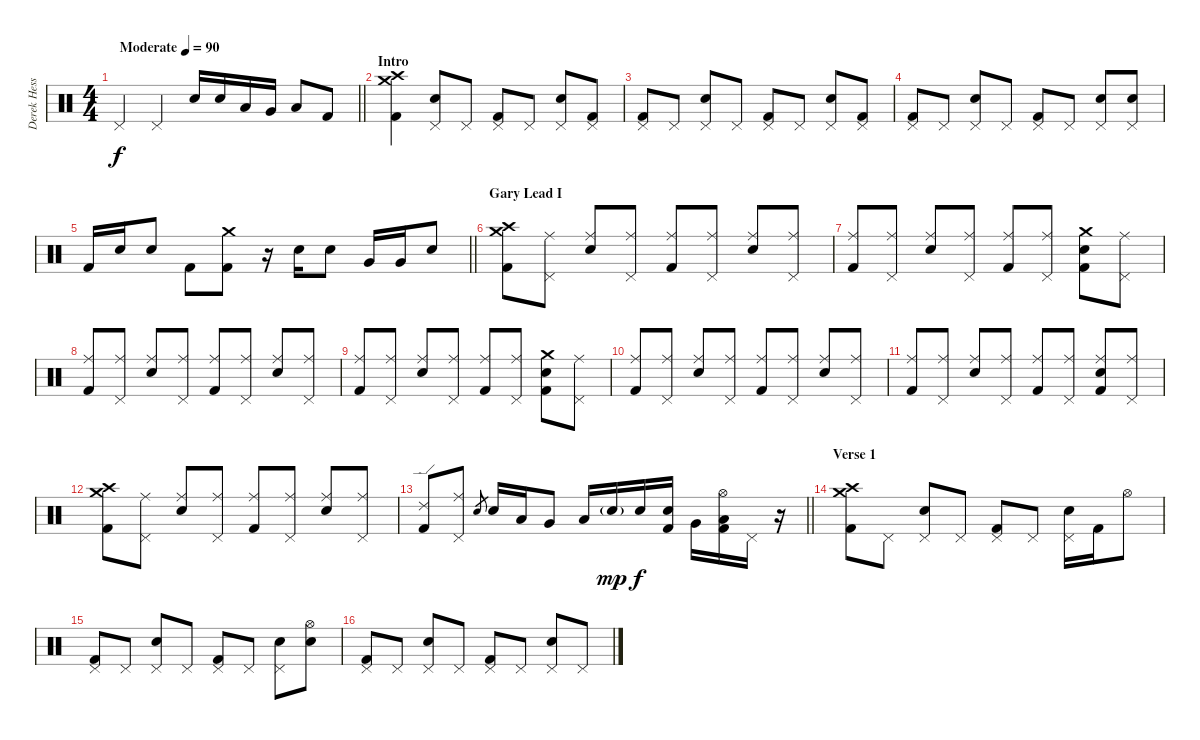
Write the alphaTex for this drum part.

\track ("Derek Hess (Drums and Percussion)" "Derek Hess") {instrument percussion}
\staff {score}
\articulation defaults
\ts (4 4)
\tempo (90 "Moderate")
\clef neutral
\barLineRight lightlight
\ks c "Pedal Hi-Hat (hit)".4{dy f} "Pedal Hi-Hat (hit)".4 "Snare (hit) 2".16 "Snare (hit) 2".16 "Low Tom (hit)".16 "Very Low Tom (hit)".16 "Low Floor Tom (hit)".8 "Kick (hit) 2".8
|
\section ("" "Intro")
("Crash medium (hit)" "Crash high (hit)" "Kick (hit) 2").4 ("Snare (hit) 2" "Pedal Hi-Hat (hit)").8 "Pedal Hi-Hat (hit)".8 ("Pedal Hi-Hat (hit)" "Kick (hit) 2").8 "Pedal Hi-Hat (hit)".8 ("Snare (hit) 2" "Pedal Hi-Hat (hit)").8 ("Pedal Hi-Hat (hit)" "Kick (hit) 2").8 |
("Pedal Hi-Hat (hit)" "Kick (hit) 2").8 "Pedal Hi-Hat (hit)".8 ("Snare (hit) 2" "Pedal Hi-Hat (hit)").8 "Pedal Hi-Hat (hit)".8 ("Pedal Hi-Hat (hit)" "Kick (hit) 2").8 "Pedal Hi-Hat (hit)".8 ("Snare (hit) 2" "Pedal Hi-Hat (hit)").8 ("Pedal Hi-Hat (hit)" "Kick (hit) 2").8 |
("Pedal Hi-Hat (hit)" "Kick (hit) 2").8 "Pedal Hi-Hat (hit)".8 ("Snare (hit) 2" "Pedal Hi-Hat (hit)").8 "Pedal Hi-Hat (hit)".8 ("Pedal Hi-Hat (hit)" "Kick (hit) 2").8 "Pedal Hi-Hat (hit)".8 ("Snare (hit) 2" "Pedal Hi-Hat (hit)").8 ("Snare (hit) 2" "Pedal Hi-Hat (hit)").8 |
\barLineRight lightlight "Kick (hit) 2".16 "Snare (hit) 2".16 "Snare (hit) 2".8 "Kick (hit) 2".8
("Crash medium (hit)" "Kick (hit) 2").8 r.16 "Snare (hit) 2".16 "Snare (hit) 2".8 "Very Low Tom (hit)".16 "Very Low Tom (hit)".16 "Snare (hit) 2".8 |
\section ("" "Gary Lead I")
("Crash medium (hit)" "Crash high (hit)" "Kick (hit) 2").8 ("Ride (middle)" "Pedal Hi-Hat (hit)").8 ("Ride (middle)" "Snare (hit) 2").8 ("Ride (middle)" "Pedal Hi-Hat (hit)").8 ("Ride (middle)" "Kick (hit) 2").8 ("Ride (middle)" "Pedal Hi-Hat (hit)").8 ("Ride (middle)" "Snare (hit) 2").8 ("Ride (middle)" "Pedal Hi-Hat (hit)").8 |
("Ride (middle)" "Kick (hit) 2").8 ("Ride (middle)" "Pedal Hi-Hat (hit)").8 ("Ride (middle)" "Snare (hit) 2").8 ("Ride (middle)" "Pedal Hi-Hat (hit)").8 ("Ride (middle)" "Kick (hit) 2").8 ("Ride (middle)" "Pedal Hi-Hat (hit)").8 ("Crash medium (hit)" "Snare (hit) 2" "Kick (hit) 2").8 ("Ride (middle)" "Pedal Hi-Hat (hit)").8 |
("Ride (middle)" "Kick (hit) 2").8 ("Ride (middle)" "Pedal Hi-Hat (hit)").8 ("Ride (middle)" "Snare (hit) 2").8 ("Ride (middle)" "Pedal Hi-Hat (hit)").8 ("Ride (middle)" "Kick (hit) 2").8 ("Ride (middle)" "Pedal Hi-Hat (hit)").8 ("Ride (middle)" "Snare (hit) 2").8 ("Ride (middle)" "Pedal Hi-Hat (hit)").8 |
("Ride (middle)" "Kick (hit) 2").8 ("Ride (middle)" "Pedal Hi-Hat (hit)").8 ("Ride (middle)" "Snare (hit) 2").8 ("Ride (middle)" "Pedal Hi-Hat (hit)").8 ("Ride (middle)" "Kick (hit) 2").8 ("Ride (middle)" "Pedal Hi-Hat (hit)").8 ("Crash medium (hit)" "Snare (hit) 2" "Kick (hit) 2").8 ("Ride (middle)" "Pedal Hi-Hat (hit)").8 |
("Ride (middle)" "Kick (hit) 2").8 ("Ride (middle)" "Pedal Hi-Hat (hit)").8 ("Ride (middle)" "Snare (hit) 2").8 ("Ride (middle)" "Pedal Hi-Hat (hit)").8 ("Ride (middle)" "Kick (hit) 2").8 ("Ride (middle)" "Pedal Hi-Hat (hit)").8 ("Ride (middle)" "Snare (hit) 2").8 ("Ride (middle)" "Pedal Hi-Hat (hit)").8 |
("Ride (middle)" "Kick (hit) 2").8 ("Ride (middle)" "Pedal Hi-Hat (hit)").8 ("Ride (middle)" "Snare (hit) 2").8 ("Ride (middle)" "Pedal Hi-Hat (hit)").8 ("Ride (middle)" "Kick (hit) 2").8 ("Ride (middle)" "Pedal Hi-Hat (hit)").8 ("Ride (middle)" "Snare (hit) 2" "Kick (hit) 2").8 ("Ride (middle)" "Pedal Hi-Hat (hit)").8 |
("Crash medium (hit)" "Crash high (hit)" "Kick (hit) 2").8 ("Ride (middle)" "Pedal Hi-Hat (hit)").8 ("Ride (middle)" "Snare (hit) 2").8 ("Ride (middle)" "Pedal Hi-Hat (hit)").8 ("Ride (middle)" "Kick (hit) 2").8 ("Ride (middle)" "Pedal Hi-Hat (hit)").8 ("Ride (middle)" "Snare (hit) 2").8 ("Ride (middle)" "Pedal Hi-Hat (hit)").8 |
\barLineRight lightlight
("Ride (edge) 2" "Kick (hit) 2").8 ("Ride (middle)" "Pedal Hi-Hat (hit)").8 "Snare (hit) 2".8{gr} "Snare (hit) 2".16 "Low Tom (hit)".16 "Very Low Tom (hit)".8 "Low Floor Tom (hit)".16 "Snare (hit) 2"{g}.16{dy mp} "Snare (hit) 2".16{dy f} ("Snare (hit) 2" "Kick (hit) 2").16 "Very Low Tom (hit)".16 ("Hi-Hat (open)" "Low Tom (hit)" "Kick (hit) 2").16 "Pedal Hi-Hat (hit)".16 r.16 |
\section ("" "Verse 1")
("Crash medium (hit)" "Crash high (hit)" "Kick (hit) 2").8 "Pedal Hi-Hat (hit)".8 ("Snare (hit) 2" "Pedal Hi-Hat (hit)").8 "Pedal Hi-Hat (hit)".8 ("Pedal Hi-Hat (hit)" "Kick (hit) 2").8 "Pedal Hi-Hat (hit)".8 ("Snare (hit) 2" "Pedal Hi-Hat (hit)").16 "Kick (hit) 2".16 "Hi-Hat (open)".8 |
("Pedal Hi-Hat (hit)" "Kick (hit) 2").8 "Pedal Hi-Hat (hit)".8 ("Snare (hit) 2" "Pedal Hi-Hat (hit)").8 "Pedal Hi-Hat (hit)".8 ("Pedal Hi-Hat (hit)" "Kick (hit) 2").8 "Pedal Hi-Hat (hit)".8 ("Snare (hit) 2" "Pedal Hi-Hat (hit)").8 ("Snare (hit) 2" "Hi-Hat (open)").8 |
("Pedal Hi-Hat (hit)" "Kick (hit) 2").8 "Pedal Hi-Hat (hit)".8 ("Snare (hit) 2" "Pedal Hi-Hat (hit)").8 "Pedal Hi-Hat (hit)".8 ("Pedal Hi-Hat (hit)" "Kick (hit) 2").8 "Pedal Hi-Hat (hit)".8 ("Snare (hit) 2" "Pedal Hi-Hat (hit)").8 "Pedal Hi-Hat (hit)".8
